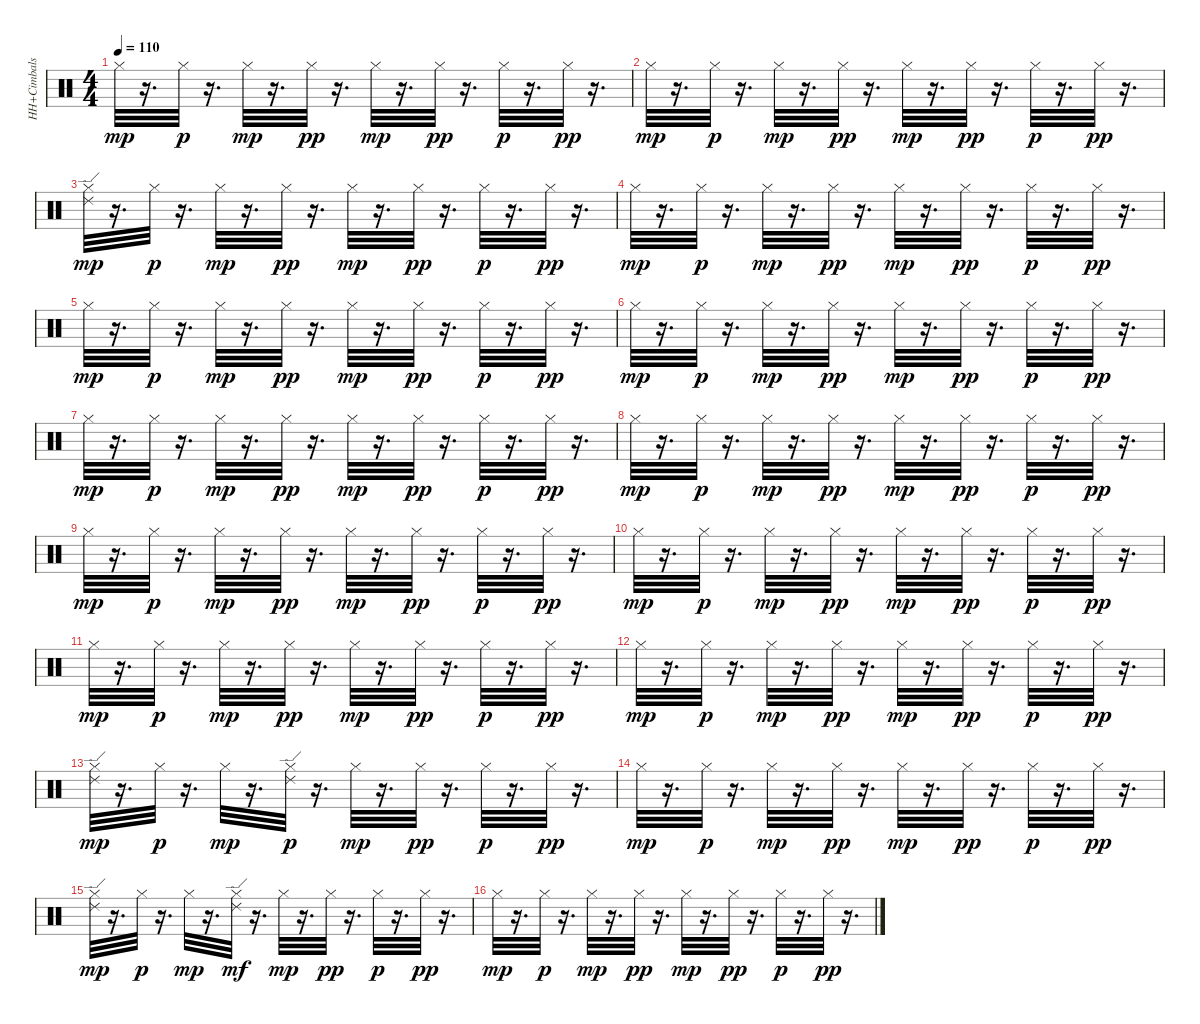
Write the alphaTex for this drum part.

\track ("HH+Cimbals" "HH+Cimbals") {instrument percussion}
\staff {score}
\articulation defaults
\ts (4 4)
\tempo 110
\clef neutral
\ks c "Hi-Hat (closed)".32{dy mp}
r.16{d} "Hi-Hat (closed)".32{dy p} r.16{d} "Hi-Hat (closed)".32{dy mp} r.16{d} "Hi-Hat (closed)".32{dy pp} r.16{d} "Hi-Hat (closed)".32{dy mp} r.16{d} "Hi-Hat (closed)".32{dy pp} r.16{d} "Hi-Hat (closed)".32{dy p} r.16{d} "Hi-Hat (closed)".32{dy pp} r.16{d} |
"Hi-Hat (closed)".32{dy mp} r.16{d} "Hi-Hat (closed)".32{dy p} r.16{d} "Hi-Hat (closed)".32{dy mp} r.16{d} "Hi-Hat (closed)".32{dy pp} r.16{d} "Hi-Hat (closed)".32{dy mp} r.16{d} "Hi-Hat (closed)".32{dy pp} r.16{d} "Hi-Hat (closed)".32{dy p} r.16{d} "Hi-Hat (closed)".32{dy pp} r.16{d} |
("Ride (edge) 2" "Hi-Hat (closed)").32{dy mp} r.16{d} "Hi-Hat (closed)".32{dy p} r.16{d} "Hi-Hat (closed)".32{dy mp} r.16{d} "Hi-Hat (closed)".32{dy pp} r.16{d} "Hi-Hat (closed)".32{dy mp} r.16{d} "Hi-Hat (closed)".32{dy pp} r.16{d} "Hi-Hat (closed)".32{dy p} r.16{d} "Hi-Hat (closed)".32{dy pp} r.16{d} |
"Hi-Hat (closed)".32{dy mp} r.16{d} "Hi-Hat (closed)".32{dy p} r.16{d} "Hi-Hat (closed)".32{dy mp} r.16{d} "Hi-Hat (closed)".32{dy pp} r.16{d} "Hi-Hat (closed)".32{dy mp} r.16{d} "Hi-Hat (closed)".32{dy pp} r.16{d} "Hi-Hat (closed)".32{dy p} r.16{d} "Hi-Hat (closed)".32{dy pp} r.16{d} |
"Hi-Hat (closed)".32{dy mp} r.16{d} "Hi-Hat (closed)".32{dy p} r.16{d} "Hi-Hat (closed)".32{dy mp} r.16{d} "Hi-Hat (closed)".32{dy pp} r.16{d} "Hi-Hat (closed)".32{dy mp} r.16{d} "Hi-Hat (closed)".32{dy pp} r.16{d} "Hi-Hat (closed)".32{dy p} r.16{d} "Hi-Hat (closed)".32{dy pp} r.16{d} |
"Hi-Hat (closed)".32{dy mp} r.16{d} "Hi-Hat (closed)".32{dy p} r.16{d} "Hi-Hat (closed)".32{dy mp} r.16{d} "Hi-Hat (closed)".32{dy pp} r.16{d} "Hi-Hat (closed)".32{dy mp} r.16{d} "Hi-Hat (closed)".32{dy pp} r.16{d} "Hi-Hat (closed)".32{dy p} r.16{d} "Hi-Hat (closed)".32{dy pp} r.16{d} |
"Hi-Hat (closed)".32{dy mp} r.16{d} "Hi-Hat (closed)".32{dy p} r.16{d} "Hi-Hat (closed)".32{dy mp} r.16{d} "Hi-Hat (closed)".32{dy pp} r.16{d} "Hi-Hat (closed)".32{dy mp} r.16{d} "Hi-Hat (closed)".32{dy pp} r.16{d} "Hi-Hat (closed)".32{dy p} r.16{d} "Hi-Hat (closed)".32{dy pp} r.16{d} |
"Hi-Hat (closed)".32{dy mp} r.16{d} "Hi-Hat (closed)".32{dy p} r.16{d} "Hi-Hat (closed)".32{dy mp} r.16{d} "Hi-Hat (closed)".32{dy pp} r.16{d} "Hi-Hat (closed)".32{dy mp} r.16{d} "Hi-Hat (closed)".32{dy pp} r.16{d} "Hi-Hat (closed)".32{dy p} r.16{d} "Hi-Hat (closed)".32{dy pp} r.16{d} |
"Hi-Hat (closed)".32{dy mp} r.16{d} "Hi-Hat (closed)".32{dy p} r.16{d} "Hi-Hat (closed)".32{dy mp} r.16{d} "Hi-Hat (closed)".32{dy pp} r.16{d} "Hi-Hat (closed)".32{dy mp} r.16{d} "Hi-Hat (closed)".32{dy pp} r.16{d} "Hi-Hat (closed)".32{dy p} r.16{d} "Hi-Hat (closed)".32{dy pp} r.16{d} |
"Hi-Hat (closed)".32{dy mp} r.16{d} "Hi-Hat (closed)".32{dy p} r.16{d} "Hi-Hat (closed)".32{dy mp} r.16{d} "Hi-Hat (closed)".32{dy pp} r.16{d} "Hi-Hat (closed)".32{dy mp} r.16{d} "Hi-Hat (closed)".32{dy pp} r.16{d} "Hi-Hat (closed)".32{dy p} r.16{d} "Hi-Hat (closed)".32{dy pp} r.16{d} |
"Hi-Hat (closed)".32{dy mp} r.16{d} "Hi-Hat (closed)".32{dy p} r.16{d} "Hi-Hat (closed)".32{dy mp} r.16{d} "Hi-Hat (closed)".32{dy pp} r.16{d} "Hi-Hat (closed)".32{dy mp} r.16{d} "Hi-Hat (closed)".32{dy pp} r.16{d} "Hi-Hat (closed)".32{dy p} r.16{d} "Hi-Hat (closed)".32{dy pp} r.16{d} |
"Hi-Hat (closed)".32{dy mp} r.16{d} "Hi-Hat (closed)".32{dy p} r.16{d} "Hi-Hat (closed)".32{dy mp} r.16{d} "Hi-Hat (closed)".32{dy pp} r.16{d} "Hi-Hat (closed)".32{dy mp} r.16{d} "Hi-Hat (closed)".32{dy pp} r.16{d} "Hi-Hat (closed)".32{dy p} r.16{d} "Hi-Hat (closed)".32{dy pp} r.16{d} |
("Ride (edge) 2" "Hi-Hat (closed)").32{dy mp} r.16{d} "Hi-Hat (closed)".32{dy p} r.16{d} "Hi-Hat (closed)".32{dy mp} r.16{d} ("Hi-Hat (closed)" "Ride (edge) 2").32{dy p} r.16{d} "Hi-Hat (closed)".32{dy mp} r.16{d} "Hi-Hat (closed)".32{dy pp} r.16{d} "Hi-Hat (closed)".32{dy p} r.16{d} "Hi-Hat (closed)".32{dy pp} r.16{d} |
"Hi-Hat (closed)".32{dy mp} r.16{d} "Hi-Hat (closed)".32{dy p} r.16{d} "Hi-Hat (closed)".32{dy mp} r.16{d} "Hi-Hat (closed)".32{dy pp} r.16{d} "Hi-Hat (closed)".32{dy mp} r.16{d} "Hi-Hat (closed)".32{dy pp} r.16{d} "Hi-Hat (closed)".32{dy p} r.16{d} "Hi-Hat (closed)".32{dy pp} r.16{d} |
("Ride (edge) 2" "Hi-Hat (closed)").32{dy mp} r.16{d} "Hi-Hat (closed)".32{dy p} r.16{d} "Hi-Hat (closed)".32{dy mp} r.16{d} ("Hi-Hat (closed)" "Ride (edge) 2").32{dy mf} r.16{d} "Hi-Hat (closed)".32{dy mp} r.16{d} "Hi-Hat (closed)".32{dy pp} r.16{d} "Hi-Hat (closed)".32{dy p} r.16{d} "Hi-Hat (closed)".32{dy pp} r.16{d} |
"Hi-Hat (closed)".32{dy mp} r.16{d} "Hi-Hat (closed)".32{dy p} r.16{d} "Hi-Hat (closed)".32{dy mp} r.16{d} "Hi-Hat (closed)".32{dy pp} r.16{d} "Hi-Hat (closed)".32{dy mp} r.16{d} "Hi-Hat (closed)".32{dy pp} r.16{d} "Hi-Hat (closed)".32{dy p} r.16{d} "Hi-Hat (closed)".32{dy pp} r.16{d}
